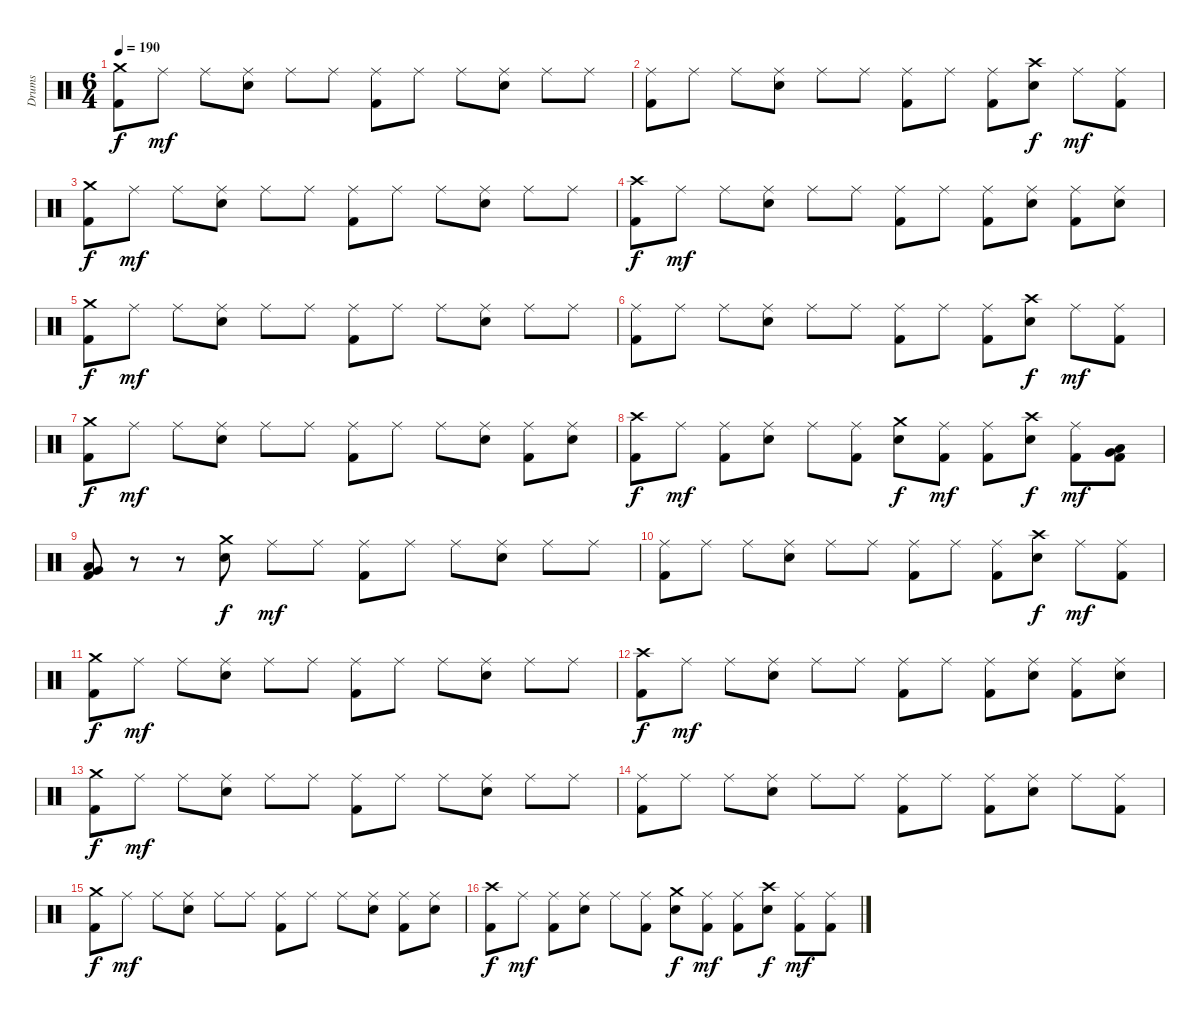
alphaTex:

\track ("Drums" "Drums") {instrument percussion}
\staff {score}
\articulation defaults
\ts (6 4)
\tempo 190
\clef neutral
\ks c
("Crash medium (hit)" "Kick (hit) 2").8{dy f} "Ride (middle)".8{dy mf} "Ride (middle)".8 ("Ride (middle)" "Snare (hit) 2").8 "Ride (middle)".8 "Ride (middle)".8 ("Ride (middle)" "Kick (hit) 2").8 "Ride (middle)".8 "Ride (middle)".8 ("Ride (middle)" "Snare (hit) 2").8 "Ride (middle)".8 "Ride (middle)".8 |
("Ride (middle)" "Kick (hit) 2").8 "Ride (middle)".8 "Ride (middle)".8 ("Ride (middle)" "Snare (hit) 2").8 "Ride (middle)".8 "Ride (middle)".8 ("Ride (middle)" "Kick (hit) 2").8 "Ride (middle)".8 ("Ride (middle)" "Kick (hit) 2").8 ("Crash high (hit)" "Snare (hit) 2").8{dy f} "Ride (middle)".8{dy mf} ("Ride (middle)" "Kick (hit) 2").8 |
("Crash medium (hit)" "Kick (hit) 2").8{dy f} "Ride (middle)".8{dy mf} "Ride (middle)".8 ("Ride (middle)" "Snare (hit) 2").8 "Ride (middle)".8 "Ride (middle)".8 ("Ride (middle)" "Kick (hit) 2").8 "Ride (middle)".8 "Ride (middle)".8 ("Ride (middle)" "Snare (hit) 2").8 "Ride (middle)".8 "Ride (middle)".8 |
("Crash high (hit)" "Kick (hit) 2").8{dy f} "Ride (middle)".8{dy mf} "Ride (middle)".8 ("Ride (middle)" "Snare (hit) 2").8 "Ride (middle)".8 "Ride (middle)".8 ("Ride (middle)" "Kick (hit) 2").8 "Ride (middle)".8 ("Ride (middle)" "Kick (hit) 2").8 ("Ride (middle)" "Snare (hit) 2").8 ("Ride (middle)" "Kick (hit) 2").8 ("Ride (middle)" "Snare (hit) 2").8 |
("Crash medium (hit)" "Kick (hit) 2").8{dy f} "Ride (middle)".8{dy mf} "Ride (middle)".8 ("Ride (middle)" "Snare (hit) 2").8 "Ride (middle)".8 "Ride (middle)".8 ("Ride (middle)" "Kick (hit) 2").8 "Ride (middle)".8 "Ride (middle)".8 ("Ride (middle)" "Snare (hit) 2").8 "Ride (middle)".8 "Ride (middle)".8 |
("Ride (middle)" "Kick (hit) 2").8 "Ride (middle)".8 "Ride (middle)".8 ("Ride (middle)" "Snare (hit) 2").8 "Ride (middle)".8 "Ride (middle)".8 ("Ride (middle)" "Kick (hit) 2").8 "Ride (middle)".8 ("Ride (middle)" "Kick (hit) 2").8 ("Crash high (hit)" "Snare (hit) 2").8{dy f} "Ride (middle)".8{dy mf} ("Ride (middle)" "Kick (hit) 2").8 |
("Crash medium (hit)" "Kick (hit) 2").8{dy f} "Ride (middle)".8{dy mf} "Ride (middle)".8 ("Ride (middle)" "Snare (hit) 2").8 "Ride (middle)".8 "Ride (middle)".8 ("Ride (middle)" "Kick (hit) 2").8 "Ride (middle)".8 "Ride (middle)".8 ("Ride (middle)" "Snare (hit) 2").8 ("Ride (middle)" "Kick (hit) 2").8 ("Ride (middle)" "Snare (hit) 2").8 |
("Crash high (hit)" "Kick (hit) 2").8{dy f} "Ride (middle)".8{dy mf} ("Ride (middle)" "Kick (hit) 2").8 ("Ride (middle)" "Snare (hit) 2").8 "Ride (middle)".8 ("Ride (middle)" "Kick (hit) 2").8 ("Crash medium (hit)" "Snare (hit) 2").8{dy f} ("Ride (middle)" "Kick (hit) 2").8{dy mf} ("Ride (middle)" "Kick (hit) 2").8 ("Crash high (hit)" "Snare (hit) 2").8{dy f} ("Ride (middle)" "Kick (hit) 2").8{dy mf} ("Very Low Tom (hit)" "Low Floor Tom (hit)" "Kick (hit) 2").8 |
("Very Low Tom (hit)" "Low Floor Tom (hit)" "Kick (hit) 2").8 r.8 r.8 ("Crash medium (hit)" "Snare (hit) 2").8{dy f} "Ride (middle)".8{dy mf} "Ride (middle)".8 ("Ride (middle)" "Kick (hit) 2").8 "Ride (middle)".8 "Ride (middle)".8 ("Ride (middle)" "Snare (hit) 2").8 "Ride (middle)".8 "Ride (middle)".8 |
("Ride (middle)" "Kick (hit) 2").8 "Ride (middle)".8 "Ride (middle)".8 ("Ride (middle)" "Snare (hit) 2").8 "Ride (middle)".8 "Ride (middle)".8 ("Ride (middle)" "Kick (hit) 2").8 "Ride (middle)".8 ("Ride (middle)" "Kick (hit) 2").8 ("Crash high (hit)" "Snare (hit) 2").8{dy f} "Ride (middle)".8{dy mf} ("Ride (middle)" "Kick (hit) 2").8 |
("Crash medium (hit)" "Kick (hit) 2").8{dy f} "Ride (middle)".8{dy mf} "Ride (middle)".8 ("Ride (middle)" "Snare (hit) 2").8 "Ride (middle)".8 "Ride (middle)".8 ("Ride (middle)" "Kick (hit) 2").8 "Ride (middle)".8 "Ride (middle)".8 ("Ride (middle)" "Snare (hit) 2").8 "Ride (middle)".8 "Ride (middle)".8 |
("Crash high (hit)" "Kick (hit) 2").8{dy f} "Ride (middle)".8{dy mf} "Ride (middle)".8 ("Ride (middle)" "Snare (hit) 2").8 "Ride (middle)".8 "Ride (middle)".8 ("Ride (middle)" "Kick (hit) 2").8 "Ride (middle)".8 ("Ride (middle)" "Kick (hit) 2").8 ("Ride (middle)" "Snare (hit) 2").8 ("Ride (middle)" "Kick (hit) 2").8 ("Ride (middle)" "Snare (hit) 2").8 |
("Crash medium (hit)" "Kick (hit) 2").8{dy f} "Ride (middle)".8{dy mf} "Ride (middle)".8 ("Ride (middle)" "Snare (hit) 2").8 "Ride (middle)".8 "Ride (middle)".8 ("Ride (middle)" "Kick (hit) 2").8 "Ride (middle)".8 "Ride (middle)".8 ("Ride (middle)" "Snare (hit) 2").8 "Ride (middle)".8 "Ride (middle)".8 |
("Ride (middle)" "Kick (hit) 2").8 "Ride (middle)".8 "Ride (middle)".8 ("Ride (middle)" "Snare (hit) 2").8 "Ride (middle)".8 "Ride (middle)".8 ("Ride (middle)" "Kick (hit) 2").8 "Ride (middle)".8 ("Ride (middle)" "Kick (hit) 2").8 ("Ride (middle)" "Snare (hit) 2").8 "Ride (middle)".8 ("Ride (middle)" "Kick (hit) 2").8 |
("Crash medium (hit)" "Kick (hit) 2").8{dy f} "Ride (middle)".8{dy mf} "Ride (middle)".8 ("Ride (middle)" "Snare (hit) 2").8 "Ride (middle)".8 "Ride (middle)".8 ("Ride (middle)" "Kick (hit) 2").8 "Ride (middle)".8 "Ride (middle)".8 ("Ride (middle)" "Snare (hit) 2").8 ("Ride (middle)" "Kick (hit) 2").8 ("Ride (middle)" "Snare (hit) 2").8 |
("Crash high (hit)" "Kick (hit) 2").8{dy f} "Ride (middle)".8{dy mf} ("Ride (middle)" "Kick (hit) 2").8 ("Ride (middle)" "Snare (hit) 2").8 "Ride (middle)".8 ("Ride (middle)" "Kick (hit) 2").8 ("Crash medium (hit)" "Snare (hit) 2").8{dy f} ("Ride (middle)" "Kick (hit) 2").8{dy mf} ("Ride (middle)" "Kick (hit) 2").8 ("Crash high (hit)" "Snare (hit) 2").8{dy f} ("Ride (middle)" "Kick (hit) 2").8{dy mf} ("Ride (middle)" "Kick (hit) 2").8
